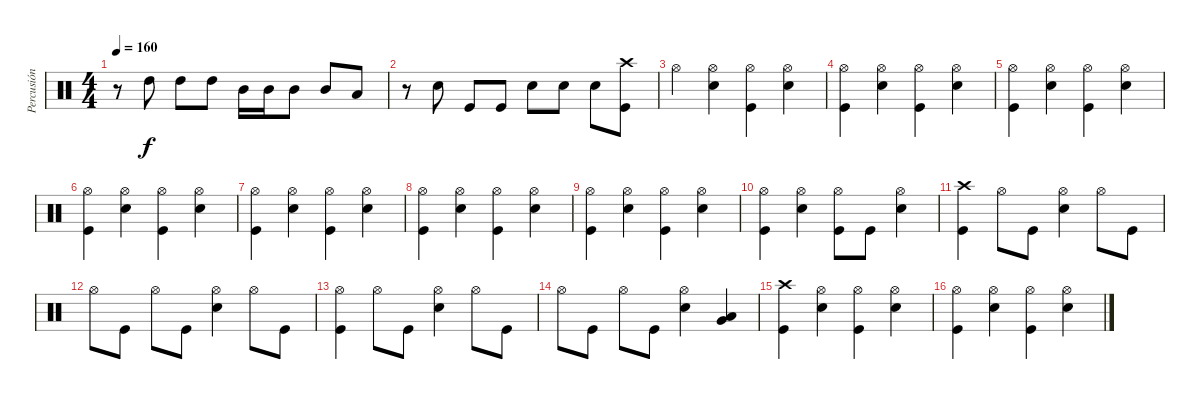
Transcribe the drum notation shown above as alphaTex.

\track ("Percusión" "Percusión") {instrument percussion}
\staff {score}
\articulation defaults
\ts (4 4)
\tempo 160
\clef neutral
\ks c
r.8{dy f} "High Tom (hit)".8 "High Tom (hit)".8 "High Tom (hit)".8 "Mid Tom (hit)".16 "Mid Tom (hit)".16 "Mid Tom (hit)".8 "Mid Tom (hit)".8 "Low Tom (hit)".8 |
r.8 "Snare (hit) 2".8 "Kick (hit)".8 "Kick (hit)".8 "Snare (hit) 2".8 "Snare (hit) 2".8 "Snare (hit) 2".8 ("Kick (hit)" "Crash high (hit)").8 |
"Hi-Hat (open)".4 ("Snare (hit) 2" "Hi-Hat (open)").4 ("Kick (hit)" "Hi-Hat (open)").4 ("Snare (hit) 2" "Hi-Hat (open)").4 |
("Kick (hit)" "Hi-Hat (open)").4 ("Snare (hit) 2" "Hi-Hat (open)").4 ("Kick (hit)" "Hi-Hat (open)").4 ("Snare (hit) 2" "Hi-Hat (open)").4 |
("Kick (hit)" "Hi-Hat (open)").4 ("Snare (hit) 2" "Hi-Hat (open)").4 ("Kick (hit)" "Hi-Hat (open)").4 ("Snare (hit) 2" "Hi-Hat (open)").4 |
("Kick (hit)" "Hi-Hat (open)").4 ("Snare (hit) 2" "Hi-Hat (open)").4 ("Kick (hit)" "Hi-Hat (open)").4 ("Snare (hit) 2" "Hi-Hat (open)").4 |
("Kick (hit)" "Hi-Hat (open)").4 ("Snare (hit) 2" "Hi-Hat (open)").4 ("Kick (hit)" "Hi-Hat (open)").4 ("Snare (hit) 2" "Hi-Hat (open)").4 |
("Kick (hit)" "Hi-Hat (open)").4 ("Snare (hit) 2" "Hi-Hat (open)").4 ("Kick (hit)" "Hi-Hat (open)").4 ("Snare (hit) 2" "Hi-Hat (open)").4 |
("Kick (hit)" "Hi-Hat (open)").4 ("Snare (hit) 2" "Hi-Hat (open)").4 ("Kick (hit)" "Hi-Hat (open)").4 ("Snare (hit) 2" "Hi-Hat (open)").4 |
("Kick (hit)" "Hi-Hat (open)").4 ("Snare (hit) 2" "Hi-Hat (open)").4 ("Kick (hit)" "Hi-Hat (open)").8 "Kick (hit)".8 ("Snare (hit) 2" "Hi-Hat (open)").4 |
("Kick (hit)" "Crash high (hit)").4 "Hi-Hat (open)".8 "Kick (hit)".8 ("Snare (hit) 2" "Hi-Hat (open)").4 "Hi-Hat (open)".8 "Kick (hit)".8 |
"Hi-Hat (open)".8 "Kick (hit)".8 "Hi-Hat (open)".8 "Kick (hit)".8 ("Snare (hit) 2" "Hi-Hat (open)").4 "Hi-Hat (open)".8 "Kick (hit)".8 |
("Kick (hit)" "Hi-Hat (open)").4 "Hi-Hat (open)".8 "Kick (hit)".8 ("Snare (hit) 2" "Hi-Hat (open)").4 "Hi-Hat (open)".8 "Kick (hit)".8 |
"Hi-Hat (open)".8 "Kick (hit)".8 "Hi-Hat (open)".8 "Kick (hit)".8 ("Snare (hit) 2" "Hi-Hat (open)").4 ("Low Floor Tom (hit)" "Very Low Tom (hit)").4 |
("Kick (hit)" "Crash high (hit)").4 ("Snare (hit) 2" "Hi-Hat (open)").4 ("Kick (hit)" "Hi-Hat (open)").4 ("Snare (hit) 2" "Hi-Hat (open)").4 |
("Kick (hit)" "Hi-Hat (open)").4 ("Snare (hit) 2" "Hi-Hat (open)").4 ("Kick (hit)" "Hi-Hat (open)").4 ("Snare (hit) 2" "Hi-Hat (open)").4
